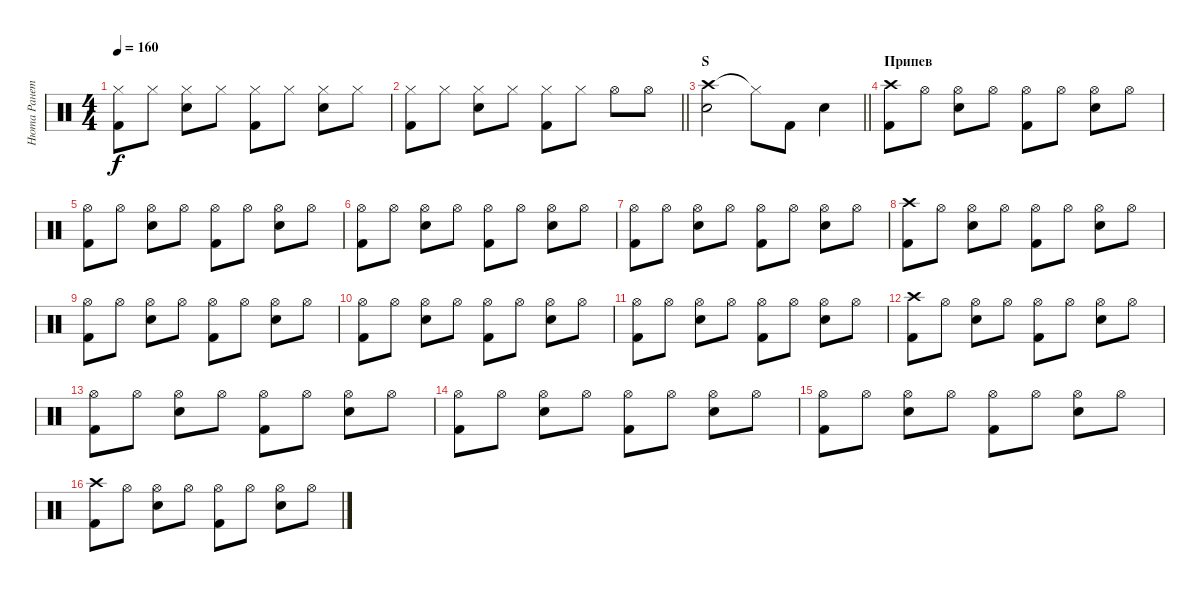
\track ("Нюта Ранетка" "Нюта Ранет") {instrument percussion}
\staff {score}
\articulation defaults
\ts (4 4)
\tempo 160
\clef neutral
\ks c
("Hi-Hat (closed)" "Kick (hit) 2").8{dy f} "Hi-Hat (closed)".8 ("Hi-Hat (closed)" "Snare (hit) 2").8 "Hi-Hat (closed)".8 ("Hi-Hat (closed)" "Kick (hit) 2").8 "Hi-Hat (closed)".8 ("Hi-Hat (closed)" "Snare (hit) 2").8 "Hi-Hat (closed)".8 |
\barLineRight lightlight
("Hi-Hat (closed)" "Kick (hit) 2").8 "Hi-Hat (closed)".8 ("Hi-Hat (closed)" "Snare (hit) 2").8 "Hi-Hat (closed)".8 ("Hi-Hat (closed)" "Kick (hit) 2").8 "Hi-Hat (closed)".8 "Hi-Hat (open)".8 "Hi-Hat (open)".8 |
\section ("" "S")
\barLineRight lightlight
("Crash high (hit)" "Snare (hit) 2").2 "Hi-Hat (closed)"{t}.8 "Kick (hit) 2".8 "Snare (hit) 2".4 |
\section ("" "Припев")
("Crash high (hit)" "Kick (hit) 2").8 "Hi-Hat (open)".8 ("Hi-Hat (open)" "Snare (hit) 2").8 "Hi-Hat (open)".8 ("Hi-Hat (open)" "Kick (hit) 2").8 "Hi-Hat (open)".8 ("Hi-Hat (open)" "Snare (hit) 2").8 "Hi-Hat (open)".8 |
("Hi-Hat (open)" "Kick (hit) 2").8 "Hi-Hat (open)".8 ("Hi-Hat (open)" "Snare (hit) 2").8 "Hi-Hat (open)".8 ("Hi-Hat (open)" "Kick (hit) 2").8 "Hi-Hat (open)".8 ("Hi-Hat (open)" "Snare (hit) 2").8 "Hi-Hat (open)".8 |
("Hi-Hat (open)" "Kick (hit) 2").8 "Hi-Hat (open)".8 ("Hi-Hat (open)" "Snare (hit) 2").8 "Hi-Hat (open)".8 ("Hi-Hat (open)" "Kick (hit) 2").8 "Hi-Hat (open)".8 ("Hi-Hat (open)" "Snare (hit) 2").8 "Hi-Hat (open)".8 |
("Hi-Hat (open)" "Kick (hit) 2").8 "Hi-Hat (open)".8 ("Hi-Hat (open)" "Snare (hit) 2").8 "Hi-Hat (open)".8 ("Hi-Hat (open)" "Kick (hit) 2").8 "Hi-Hat (open)".8 ("Hi-Hat (open)" "Snare (hit) 2").8 "Hi-Hat (open)".8 |
("Crash high (hit)" "Kick (hit) 2").8 "Hi-Hat (open)".8 ("Hi-Hat (open)" "Snare (hit) 2").8 "Hi-Hat (open)".8 ("Hi-Hat (open)" "Kick (hit) 2").8 "Hi-Hat (open)".8 ("Hi-Hat (open)" "Snare (hit) 2").8 "Hi-Hat (open)".8 |
("Hi-Hat (open)" "Kick (hit) 2").8 "Hi-Hat (open)".8 ("Hi-Hat (open)" "Snare (hit) 2").8 "Hi-Hat (open)".8 ("Hi-Hat (open)" "Kick (hit) 2").8 "Hi-Hat (open)".8 ("Hi-Hat (open)" "Snare (hit) 2").8 "Hi-Hat (open)".8 |
("Hi-Hat (open)" "Kick (hit) 2").8 "Hi-Hat (open)".8 ("Hi-Hat (open)" "Snare (hit) 2").8 "Hi-Hat (open)".8 ("Hi-Hat (open)" "Kick (hit) 2").8 "Hi-Hat (open)".8 ("Hi-Hat (open)" "Snare (hit) 2").8 "Hi-Hat (open)".8 |
("Hi-Hat (open)" "Kick (hit) 2").8 "Hi-Hat (open)".8 ("Hi-Hat (open)" "Snare (hit) 2").8 "Hi-Hat (open)".8 ("Hi-Hat (open)" "Kick (hit) 2").8 "Hi-Hat (open)".8 ("Hi-Hat (open)" "Snare (hit) 2").8 "Hi-Hat (open)".8 |
("Crash high (hit)" "Kick (hit) 2").8 "Hi-Hat (open)".8 ("Hi-Hat (open)" "Snare (hit) 2").8 "Hi-Hat (open)".8 ("Hi-Hat (open)" "Kick (hit) 2").8 "Hi-Hat (open)".8 ("Hi-Hat (open)" "Snare (hit) 2").8 "Hi-Hat (open)".8 |
("Hi-Hat (open)" "Kick (hit) 2").8 "Hi-Hat (open)".8 ("Hi-Hat (open)" "Snare (hit) 2").8 "Hi-Hat (open)".8 ("Hi-Hat (open)" "Kick (hit) 2").8 "Hi-Hat (open)".8 ("Hi-Hat (open)" "Snare (hit) 2").8 "Hi-Hat (open)".8 |
("Hi-Hat (open)" "Kick (hit) 2").8 "Hi-Hat (open)".8 ("Hi-Hat (open)" "Snare (hit) 2").8 "Hi-Hat (open)".8 ("Hi-Hat (open)" "Kick (hit) 2").8 "Hi-Hat (open)".8 ("Hi-Hat (open)" "Snare (hit) 2").8 "Hi-Hat (open)".8 |
("Hi-Hat (open)" "Kick (hit) 2").8 "Hi-Hat (open)".8 ("Hi-Hat (open)" "Snare (hit) 2").8 "Hi-Hat (open)".8 ("Hi-Hat (open)" "Kick (hit) 2").8 "Hi-Hat (open)".8 ("Hi-Hat (open)" "Snare (hit) 2").8 "Hi-Hat (open)".8 |
("Crash high (hit)" "Kick (hit) 2").8 "Hi-Hat (open)".8 ("Hi-Hat (open)" "Snare (hit) 2").8 "Hi-Hat (open)".8 ("Hi-Hat (open)" "Kick (hit) 2").8 "Hi-Hat (open)".8 ("Hi-Hat (open)" "Snare (hit) 2").8 "Hi-Hat (open)".8
